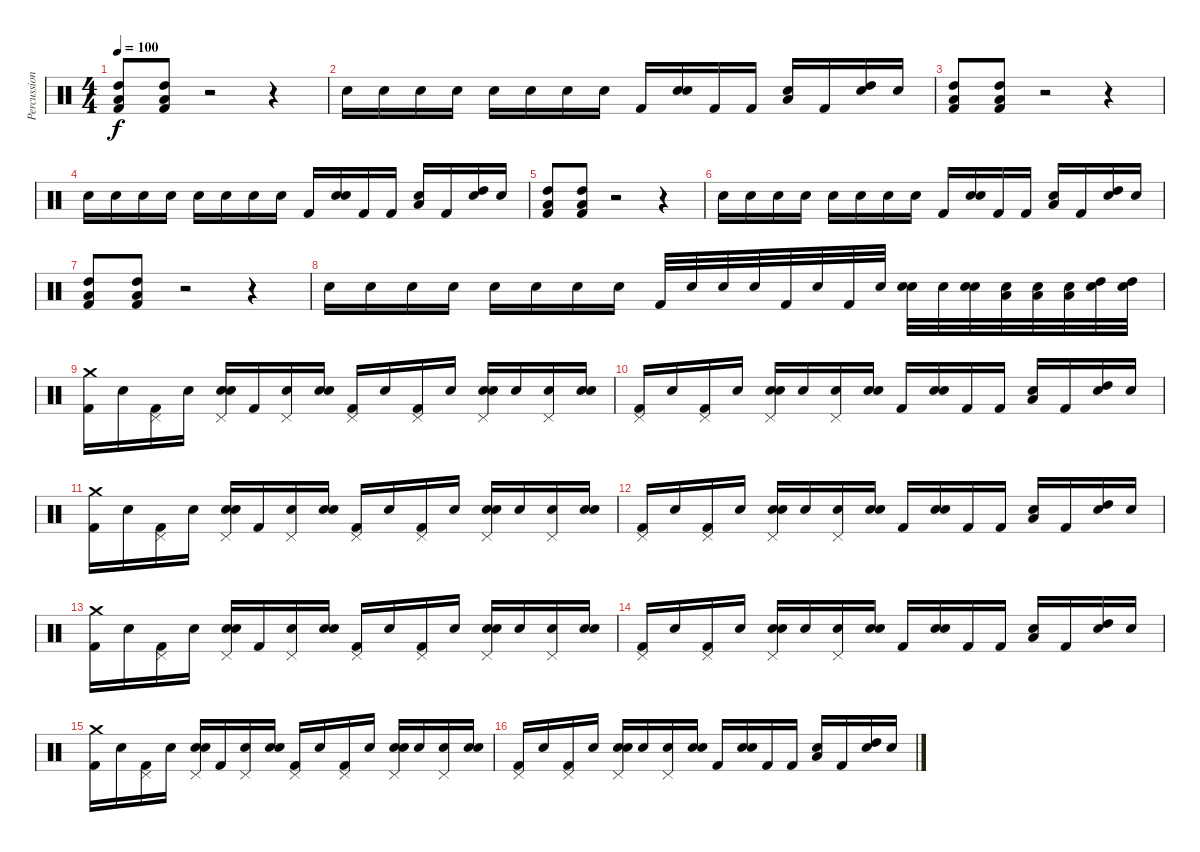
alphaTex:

\track ("Percussion" "Percussion") {instrument percussion}
\staff {score}
\articulation defaults
\ts (4 4)
\tempo 100
\clef neutral
\ks c
("High Tom (hit)" "Low Floor Tom (hit)" "Kick (hit) 2").8{dy f} ("High Tom (hit)" "Low Floor Tom (hit)" "Kick (hit) 2").8 r.2 r.4 |
"Snare (hit)".16 "Snare (hit)".16 "Snare (hit)".16 "Snare (hit)".16 "Snare (hit)".16 "Snare (hit)".16 "Snare (hit)".16 "Snare (hit)".16 "Kick (hit) 2".16 ("Electric Snare (hit)" "Snare (hit)").16 "Kick (hit) 2".16 "Kick (hit) 2".16 ("Low Tom (hit)" "Snare (hit)").16 "Kick (hit) 2".16 ("High Tom (hit)" "Snare (hit)").16 "Snare (hit)".16 |
("High Tom (hit)" "Low Floor Tom (hit)" "Kick (hit) 2").8 ("High Tom (hit)" "Low Floor Tom (hit)" "Kick (hit) 2").8 r.2 r.4 |
"Snare (hit)".16 "Snare (hit)".16 "Snare (hit)".16 "Snare (hit)".16 "Snare (hit)".16 "Snare (hit)".16 "Snare (hit)".16 "Snare (hit)".16 "Kick (hit) 2".16 ("Electric Snare (hit)" "Snare (hit)").16 "Kick (hit) 2".16 "Kick (hit) 2".16 ("Low Tom (hit)" "Snare (hit)").16 "Kick (hit) 2".16 ("High Tom (hit)" "Snare (hit)").16 "Snare (hit)".16 |
("High Tom (hit)" "Low Floor Tom (hit)" "Kick (hit) 2").8 ("High Tom (hit)" "Low Floor Tom (hit)" "Kick (hit) 2").8 r.2 r.4 |
"Snare (hit)".16 "Snare (hit)".16 "Snare (hit)".16 "Snare (hit)".16 "Snare (hit)".16 "Snare (hit)".16 "Snare (hit)".16 "Snare (hit)".16 "Kick (hit) 2".16 ("Electric Snare (hit)" "Snare (hit)").16 "Kick (hit) 2".16 "Kick (hit) 2".16 ("Low Tom (hit)" "Snare (hit)").16 "Kick (hit) 2".16 ("High Tom (hit)" "Snare (hit)").16 "Snare (hit)".16 |
("High Tom (hit)" "Low Floor Tom (hit)" "Kick (hit) 2").8 ("High Tom (hit)" "Low Floor Tom (hit)" "Kick (hit) 2").8 r.2 r.4 |
"Snare (hit)".16 "Snare (hit)".16 "Snare (hit)".16 "Snare (hit)".16 "Snare (hit)".16 "Snare (hit)".16 "Snare (hit)".16 "Snare (hit)".16 "Kick (hit) 2".32 "Snare (hit)".32 "Electric Snare (hit)".32 "Snare (hit)".32 "Kick (hit) 2".32 "Snare (hit)".32 "Kick (hit) 2".32 "Snare (hit)".32 ("Electric Snare (hit)" "Snare (hit)").32 "Snare (hit)".32 ("Electric Snare (hit)" "Snare (hit)").32 ("Low Floor Tom (hit)" "Snare (hit)").32 ("Low Tom (hit)" "Snare (hit)").32 ("Low Tom (hit)" "Snare (hit)").32 ("High Tom (hit)" "Snare (hit)").32 ("High Tom (hit)" "Snare (hit)").32 |
("Crash medium (hit)" "Kick (hit) 2").16 "Snare (hit)".16 ("Pedal Hi-Hat (hit)" "Kick (hit) 2").16 "Snare (hit)".16 ("Pedal Hi-Hat (hit)" "Electric Snare (hit)" "Snare (hit)").16 "Kick (hit) 2".16 ("Pedal Hi-Hat (hit)" "Snare (hit)").16 ("Electric Snare (hit)" "Snare (hit)").16 ("Pedal Hi-Hat (hit)" "Kick (hit) 2").16 "Snare (hit)".16 ("Pedal Hi-Hat (hit)" "Kick (hit) 2").16 "Snare (hit)".16 ("Pedal Hi-Hat (hit)" "Electric Snare (hit)" "Snare (hit)").16 "Snare (hit)".16 ("Pedal Hi-Hat (hit)" "Snare (hit)").16 ("Electric Snare (hit)" "Snare (hit)").16 |
("Pedal Hi-Hat (hit)" "Kick (hit) 2").16 "Snare (hit)".16 ("Pedal Hi-Hat (hit)" "Kick (hit) 2").16 "Snare (hit)".16 ("Pedal Hi-Hat (hit)" "Electric Snare (hit)" "Snare (hit)").16 "Snare (hit)".16 ("Pedal Hi-Hat (hit)" "Snare (hit)").16 ("Electric Snare (hit)" "Snare (hit)").16 "Kick (hit) 2".16 ("Electric Snare (hit)" "Snare (hit)").16 "Kick (hit) 2".16 "Kick (hit) 2".16 ("Low Tom (hit)" "Snare (hit)").16 "Kick (hit) 2".16 ("High Tom (hit)" "Snare (hit)").16 "Snare (hit)".16 |
("Crash medium (hit)" "Kick (hit) 2").16 "Snare (hit)".16 ("Pedal Hi-Hat (hit)" "Kick (hit) 2").16 "Snare (hit)".16 ("Pedal Hi-Hat (hit)" "Electric Snare (hit)" "Snare (hit)").16 "Kick (hit) 2".16 ("Pedal Hi-Hat (hit)" "Snare (hit)").16 ("Electric Snare (hit)" "Snare (hit)").16 ("Pedal Hi-Hat (hit)" "Kick (hit) 2").16 "Snare (hit)".16 ("Pedal Hi-Hat (hit)" "Kick (hit) 2").16 "Snare (hit)".16 ("Pedal Hi-Hat (hit)" "Electric Snare (hit)" "Snare (hit)").16 "Snare (hit)".16 ("Pedal Hi-Hat (hit)" "Snare (hit)").16 ("Electric Snare (hit)" "Snare (hit)").16 |
("Pedal Hi-Hat (hit)" "Kick (hit) 2").16 "Snare (hit)".16 ("Pedal Hi-Hat (hit)" "Kick (hit) 2").16 "Snare (hit)".16 ("Pedal Hi-Hat (hit)" "Electric Snare (hit)" "Snare (hit)").16 "Snare (hit)".16 ("Pedal Hi-Hat (hit)" "Snare (hit)").16 ("Electric Snare (hit)" "Snare (hit)").16 "Kick (hit) 2".16 ("Electric Snare (hit)" "Snare (hit)").16 "Kick (hit) 2".16 "Kick (hit) 2".16 ("Low Tom (hit)" "Snare (hit)").16 "Kick (hit) 2".16 ("High Tom (hit)" "Snare (hit)").16 "Snare (hit)".16 |
("Crash medium (hit)" "Kick (hit) 2").16 "Snare (hit)".16 ("Pedal Hi-Hat (hit)" "Kick (hit) 2").16 "Snare (hit)".16 ("Pedal Hi-Hat (hit)" "Electric Snare (hit)" "Snare (hit)").16 "Kick (hit) 2".16 ("Pedal Hi-Hat (hit)" "Snare (hit)").16 ("Electric Snare (hit)" "Snare (hit)").16 ("Pedal Hi-Hat (hit)" "Kick (hit) 2").16 "Snare (hit)".16 ("Pedal Hi-Hat (hit)" "Kick (hit) 2").16 "Snare (hit)".16 ("Pedal Hi-Hat (hit)" "Electric Snare (hit)" "Snare (hit)").16 "Snare (hit)".16 ("Pedal Hi-Hat (hit)" "Snare (hit)").16 ("Electric Snare (hit)" "Snare (hit)").16 |
("Pedal Hi-Hat (hit)" "Kick (hit) 2").16 "Snare (hit)".16 ("Pedal Hi-Hat (hit)" "Kick (hit) 2").16 "Snare (hit)".16 ("Pedal Hi-Hat (hit)" "Electric Snare (hit)" "Snare (hit)").16 "Snare (hit)".16 ("Pedal Hi-Hat (hit)" "Snare (hit)").16 ("Electric Snare (hit)" "Snare (hit)").16 "Kick (hit) 2".16 ("Electric Snare (hit)" "Snare (hit)").16 "Kick (hit) 2".16 "Kick (hit) 2".16 ("Low Tom (hit)" "Snare (hit)").16 "Kick (hit) 2".16 ("High Tom (hit)" "Snare (hit)").16 "Snare (hit)".16 |
("Crash medium (hit)" "Kick (hit) 2").16 "Snare (hit)".16 ("Pedal Hi-Hat (hit)" "Kick (hit) 2").16 "Snare (hit)".16 ("Pedal Hi-Hat (hit)" "Electric Snare (hit)" "Snare (hit)").16 "Kick (hit) 2".16 ("Pedal Hi-Hat (hit)" "Snare (hit)").16 ("Electric Snare (hit)" "Snare (hit)").16 ("Pedal Hi-Hat (hit)" "Kick (hit) 2").16 "Snare (hit)".16 ("Pedal Hi-Hat (hit)" "Kick (hit) 2").16 "Snare (hit)".16 ("Pedal Hi-Hat (hit)" "Electric Snare (hit)" "Snare (hit)").16 "Snare (hit)".16 ("Pedal Hi-Hat (hit)" "Snare (hit)").16 ("Electric Snare (hit)" "Snare (hit)").16 |
("Pedal Hi-Hat (hit)" "Kick (hit) 2").16 "Snare (hit)".16 ("Pedal Hi-Hat (hit)" "Kick (hit) 2").16 "Snare (hit)".16 ("Pedal Hi-Hat (hit)" "Electric Snare (hit)" "Snare (hit)").16 "Snare (hit)".16 ("Pedal Hi-Hat (hit)" "Snare (hit)").16 ("Electric Snare (hit)" "Snare (hit)").16 "Kick (hit) 2".16 ("Electric Snare (hit)" "Snare (hit)").16 "Kick (hit) 2".16 "Kick (hit) 2".16 ("Low Tom (hit)" "Snare (hit)").16 "Kick (hit) 2".16 ("High Tom (hit)" "Snare (hit)").16 "Snare (hit)".16
